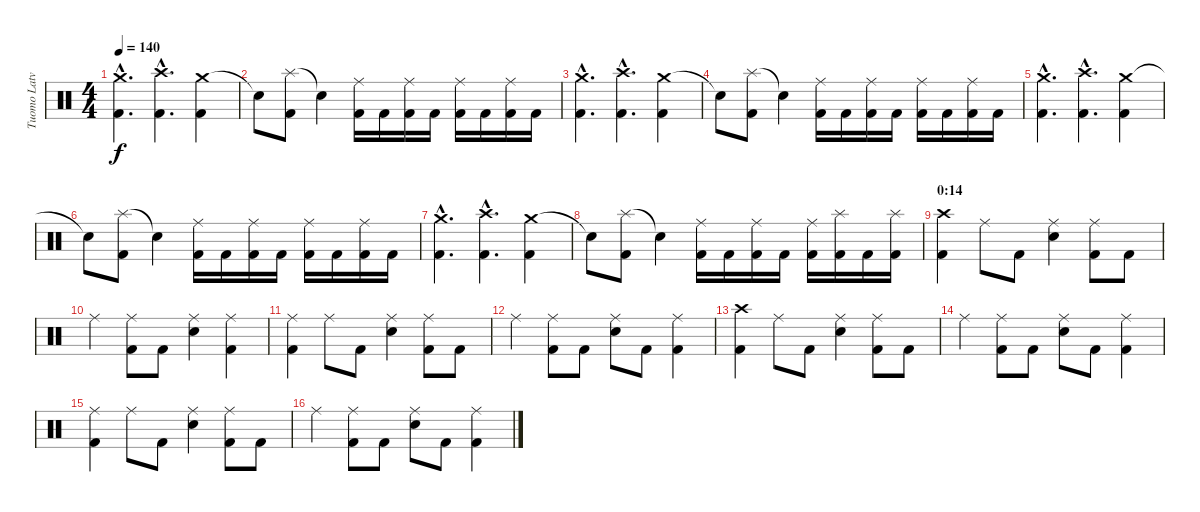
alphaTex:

\track ("Tuomo Latvala" "Tuomo Latv") {instrument percussion}
\staff {score}
\articulation defaults
\ts (4 4)
\tempo 140
\clef neutral
\ks c
("Crash medium (hit)"{hac} "Kick (hit) 2"{hac}).4{d dy f} ("Crash high (hit)"{hac} "Kick (hit) 2"{hac}).4{d} ("Crash medium (hit)" "Kick (hit) 2").4 |
"Snare (hit)"{t}.8 ("Splash (hit)" "Kick (hit) 2").8 "Snare (hit)"{t}.4 ("Ride (middle)" "Kick (hit) 2").16 "Kick (hit) 2".16 ("Ride (middle)" "Kick (hit) 2").16 "Kick (hit) 2".16 ("Ride (middle)" "Kick (hit) 2").16 "Kick (hit) 2".16 ("Ride (middle)" "Kick (hit) 2").16 "Kick (hit) 2".16 |
("Crash medium (hit)"{hac} "Kick (hit) 2"{hac}).4{d} ("Crash high (hit)"{hac} "Kick (hit) 2"{hac}).4{d} ("Crash medium (hit)" "Kick (hit) 2").4 |
"Snare (hit)"{t}.8 ("Splash (hit)" "Kick (hit) 2").8 "Snare (hit)"{t}.4 ("Ride (middle)" "Kick (hit) 2").16 "Kick (hit) 2".16 ("Ride (middle)" "Kick (hit) 2").16 "Kick (hit) 2".16 ("Ride (middle)" "Kick (hit) 2").16 "Kick (hit) 2".16 ("Ride (middle)" "Kick (hit) 2").16 "Kick (hit) 2".16 |
("Crash medium (hit)"{hac} "Kick (hit) 2"{hac}).4{d} ("Crash high (hit)"{hac} "Kick (hit) 2"{hac}).4{d} ("Crash medium (hit)" "Kick (hit) 2").4 |
"Snare (hit)"{t}.8 ("Splash (hit)" "Kick (hit) 2").8 "Snare (hit)"{t}.4 ("Ride (middle)" "Kick (hit) 2").16 "Kick (hit) 2".16 ("Ride (middle)" "Kick (hit) 2").16 "Kick (hit) 2".16 ("Ride (middle)" "Kick (hit) 2").16 "Kick (hit) 2".16 ("Ride (middle)" "Kick (hit) 2").16 "Kick (hit) 2".16 |
("Crash medium (hit)"{hac} "Kick (hit) 2"{hac}).4{d} ("Crash high (hit)"{hac} "Kick (hit) 2"{hac}).4{d} ("Crash medium (hit)" "Kick (hit) 2").4 |
"Snare (hit)"{t}.8 ("Splash (hit)" "Kick (hit) 2").8 "Snare (hit)"{t}.4 ("Ride (middle)" "Kick (hit) 2").16 "Kick (hit) 2".16 ("Ride (middle)" "Kick (hit) 2").16 "Kick (hit) 2".16 ("Ride (middle)" "Kick (hit) 2").16 ("Splash (hit)" "Kick (hit) 2").16 "Kick (hit) 2".16 ("Splash (hit)" "Kick (hit) 2").16 |
\section ("" "0:14")
("Crash high (hit)" "Kick (hit) 2").4 "Ride (middle)".8 "Kick (hit) 2".8 ("Ride (middle)" "Electric Snare (hit)").4 ("Ride (middle)" "Kick (hit) 2").8 "Kick (hit) 2".8 |
"Ride (middle)".4 ("Ride (middle)" "Kick (hit) 2").8 "Kick (hit) 2".8 ("Ride (middle)" "Electric Snare (hit)").4 ("Ride (middle)" "Kick (hit) 2").4 |
("Ride (middle)" "Kick (hit) 2").4 "Ride (middle)".8 "Kick (hit) 2".8 ("Ride (middle)" "Electric Snare (hit)").4 ("Ride (middle)" "Kick (hit) 2").8 "Kick (hit) 2".8 |
"Ride (middle)".4 ("Ride (middle)" "Kick (hit) 2").8 "Kick (hit) 2".8 ("Ride (middle)" "Electric Snare (hit)").8 "Kick (hit) 2".8 ("Ride (middle)" "Kick (hit) 2").4 |
("Crash high (hit)" "Kick (hit) 2").4 "Ride (middle)".8 "Kick (hit) 2".8 ("Ride (middle)" "Electric Snare (hit)").4 ("Ride (middle)" "Kick (hit) 2").8 "Kick (hit) 2".8 |
"Ride (middle)".4 ("Ride (middle)" "Kick (hit) 2").8 "Kick (hit) 2".8 ("Ride (middle)" "Electric Snare (hit)").8 "Kick (hit) 2".8 ("Ride (middle)" "Kick (hit) 2").4 |
("Ride (middle)" "Kick (hit) 2").4 "Ride (middle)".8 "Kick (hit) 2".8 ("Ride (middle)" "Electric Snare (hit)").4 ("Ride (middle)" "Kick (hit) 2").8 "Kick (hit) 2".8 |
"Ride (middle)".4 ("Ride (middle)" "Kick (hit) 2").8 "Kick (hit) 2".8 ("Ride (middle)" "Electric Snare (hit)").8 "Kick (hit) 2".8 ("Ride (middle)" "Kick (hit) 2").4
